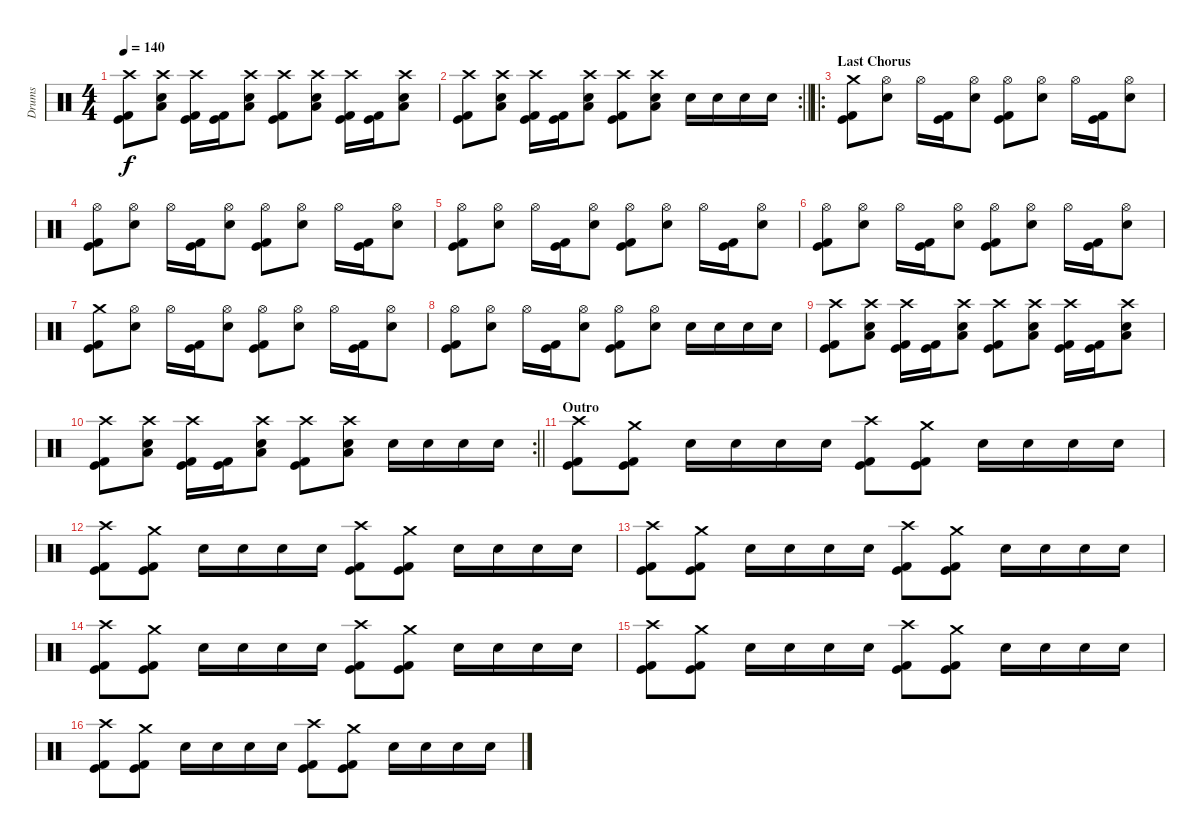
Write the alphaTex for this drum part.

\track ("Drums" "Drums") {instrument percussion}
\staff {score}
\articulation defaults
\ts (4 4)
\tempo 140
\clef neutral
\ks c
("Crash high (hit)" "Kick (hit)" "Kick (hit) 2").8{dy f} ("Crash high (hit)" "Electric Snare (hit)" "Low Floor Tom (hit)").8 ("Crash high (hit)" "Kick (hit)" "Kick (hit) 2").16 ("Kick (hit)" "Kick (hit) 2").16 ("Crash high (hit)" "Electric Snare (hit)" "Low Floor Tom (hit)").8 ("Crash high (hit)" "Kick (hit)" "Kick (hit) 2").8 ("Crash high (hit)" "Electric Snare (hit)" "Low Floor Tom (hit)").8 ("Crash high (hit)" "Kick (hit)" "Kick (hit) 2").16 ("Kick (hit)" "Kick (hit) 2").16 ("Crash high (hit)" "Electric Snare (hit)" "Low Floor Tom (hit)").8 |
\rc 2
\barLineRight lightlight
("Crash high (hit)" "Kick (hit)" "Kick (hit) 2").8 ("Crash high (hit)" "Electric Snare (hit)" "Low Floor Tom (hit)").8 ("Crash high (hit)" "Kick (hit)" "Kick (hit) 2").16 ("Kick (hit)" "Kick (hit) 2").16 ("Crash high (hit)" "Electric Snare (hit)" "Low Floor Tom (hit)").8 ("Crash high (hit)" "Kick (hit)" "Kick (hit) 2").8 ("Crash high (hit)" "Electric Snare (hit)" "Low Floor Tom (hit)").8 "Electric Snare (hit)".16 "Electric Snare (hit)".16 "Electric Snare (hit)".16 "Electric Snare (hit)".16 |
\ro
\section ("" "Last Chorus")
("Crash medium (hit)" "Kick (hit)" "Kick (hit) 2").8 ("Hi-Hat (open)" "Electric Snare (hit)").8 "Hi-Hat (open)".16 ("Kick (hit)" "Kick (hit) 2").16 ("Hi-Hat (open)" "Electric Snare (hit)").8 ("Hi-Hat (open)" "Kick (hit)" "Kick (hit) 2").8 ("Hi-Hat (open)" "Electric Snare (hit)").8 "Hi-Hat (open)".16 ("Kick (hit)" "Kick (hit) 2").16 ("Hi-Hat (open)" "Electric Snare (hit)").8 |
("Hi-Hat (open)" "Kick (hit)" "Kick (hit) 2").8 ("Hi-Hat (open)" "Electric Snare (hit)").8 "Hi-Hat (open)".16 ("Kick (hit)" "Kick (hit) 2").16 ("Hi-Hat (open)" "Electric Snare (hit)").8 ("Hi-Hat (open)" "Kick (hit)" "Kick (hit) 2").8 ("Hi-Hat (open)" "Electric Snare (hit)").8 "Hi-Hat (open)".16 ("Kick (hit)" "Kick (hit) 2").16 ("Hi-Hat (open)" "Electric Snare (hit)").8 |
("Hi-Hat (open)" "Kick (hit)" "Kick (hit) 2").8 ("Hi-Hat (open)" "Electric Snare (hit)").8 "Hi-Hat (open)".16 ("Kick (hit)" "Kick (hit) 2").16 ("Hi-Hat (open)" "Electric Snare (hit)").8 ("Hi-Hat (open)" "Kick (hit)" "Kick (hit) 2").8 ("Hi-Hat (open)" "Electric Snare (hit)").8 "Hi-Hat (open)".16 ("Kick (hit)" "Kick (hit) 2").16 ("Hi-Hat (open)" "Electric Snare (hit)").8 |
("Hi-Hat (open)" "Kick (hit)" "Kick (hit) 2").8 ("Hi-Hat (open)" "Electric Snare (hit)").8 "Hi-Hat (open)".16 ("Kick (hit)" "Kick (hit) 2").16 ("Hi-Hat (open)" "Electric Snare (hit)").8 ("Hi-Hat (open)" "Kick (hit)" "Kick (hit) 2").8 ("Hi-Hat (open)" "Electric Snare (hit)").8 "Hi-Hat (open)".16 ("Kick (hit)" "Kick (hit) 2").16 ("Hi-Hat (open)" "Electric Snare (hit)").8 |
("Crash medium (hit)" "Kick (hit)" "Kick (hit) 2").8 ("Hi-Hat (open)" "Electric Snare (hit)").8 "Hi-Hat (open)".16 ("Kick (hit)" "Kick (hit) 2").16 ("Hi-Hat (open)" "Electric Snare (hit)").8 ("Hi-Hat (open)" "Kick (hit)" "Kick (hit) 2").8 ("Hi-Hat (open)" "Electric Snare (hit)").8 "Hi-Hat (open)".16 ("Kick (hit)" "Kick (hit) 2").16 ("Hi-Hat (open)" "Electric Snare (hit)").8 |
("Hi-Hat (open)" "Kick (hit)" "Kick (hit) 2").8 ("Hi-Hat (open)" "Electric Snare (hit)").8 "Hi-Hat (open)".16 ("Kick (hit)" "Kick (hit) 2").16 ("Hi-Hat (open)" "Electric Snare (hit)").8 ("Hi-Hat (open)" "Kick (hit)" "Kick (hit) 2").8 ("Hi-Hat (open)" "Electric Snare (hit)").8 "Electric Snare (hit)".16 "Electric Snare (hit)".16 "Electric Snare (hit)".16 "Electric Snare (hit)".16 |
("Crash high (hit)" "Kick (hit)" "Kick (hit) 2").8 ("Crash high (hit)" "Electric Snare (hit)" "Low Floor Tom (hit)").8 ("Crash high (hit)" "Kick (hit)" "Kick (hit) 2").16 ("Kick (hit)" "Kick (hit) 2").16 ("Crash high (hit)" "Electric Snare (hit)" "Low Floor Tom (hit)").8 ("Crash high (hit)" "Kick (hit)" "Kick (hit) 2").8 ("Crash high (hit)" "Electric Snare (hit)" "Low Floor Tom (hit)").8 ("Crash high (hit)" "Kick (hit)" "Kick (hit) 2").16 ("Kick (hit)" "Kick (hit) 2").16 ("Crash high (hit)" "Electric Snare (hit)" "Low Floor Tom (hit)").8 |
\rc 2
\barLineRight lightlight
("Crash high (hit)" "Kick (hit)" "Kick (hit) 2").8 ("Crash high (hit)" "Electric Snare (hit)" "Low Floor Tom (hit)").8 ("Crash high (hit)" "Kick (hit)" "Kick (hit) 2").16 ("Kick (hit)" "Kick (hit) 2").16 ("Crash high (hit)" "Electric Snare (hit)" "Low Floor Tom (hit)").8 ("Crash high (hit)" "Kick (hit)" "Kick (hit) 2").8 ("Crash high (hit)" "Electric Snare (hit)" "Low Floor Tom (hit)").8 "Electric Snare (hit)".16 "Electric Snare (hit)".16 "Electric Snare (hit)".16 "Electric Snare (hit)".16 |
\section ("" "Outro")
("Crash high (hit)" "Kick (hit)" "Kick (hit) 2").8 ("Crash medium (hit)" "Kick (hit)" "Kick (hit) 2").8 "Electric Snare (hit)".16 "Electric Snare (hit)".16 "Electric Snare (hit)".16 "Electric Snare (hit)".16 ("Crash high (hit)" "Kick (hit)" "Kick (hit) 2").8 ("Crash medium (hit)" "Kick (hit)" "Kick (hit) 2").8 "Electric Snare (hit)".16 "Electric Snare (hit)".16 "Electric Snare (hit)".16 "Electric Snare (hit)".16 |
("Crash high (hit)" "Kick (hit)" "Kick (hit) 2").8 ("Crash medium (hit)" "Kick (hit)" "Kick (hit) 2").8 "Electric Snare (hit)".16 "Electric Snare (hit)".16 "Electric Snare (hit)".16 "Electric Snare (hit)".16 ("Crash high (hit)" "Kick (hit)" "Kick (hit) 2").8 ("Crash medium (hit)" "Kick (hit)" "Kick (hit) 2").8 "Electric Snare (hit)".16 "Electric Snare (hit)".16 "Electric Snare (hit)".16 "Electric Snare (hit)".16 |
("Crash high (hit)" "Kick (hit)" "Kick (hit) 2").8 ("Crash medium (hit)" "Kick (hit)" "Kick (hit) 2").8 "Electric Snare (hit)".16 "Electric Snare (hit)".16 "Electric Snare (hit)".16 "Electric Snare (hit)".16 ("Crash high (hit)" "Kick (hit)" "Kick (hit) 2").8 ("Crash medium (hit)" "Kick (hit)" "Kick (hit) 2").8 "Electric Snare (hit)".16 "Electric Snare (hit)".16 "Electric Snare (hit)".16 "Electric Snare (hit)".16 |
("Crash high (hit)" "Kick (hit)" "Kick (hit) 2").8 ("Crash medium (hit)" "Kick (hit)" "Kick (hit) 2").8 "Electric Snare (hit)".16 "Electric Snare (hit)".16 "Electric Snare (hit)".16 "Electric Snare (hit)".16 ("Crash high (hit)" "Kick (hit)" "Kick (hit) 2").8 ("Crash medium (hit)" "Kick (hit)" "Kick (hit) 2").8 "Electric Snare (hit)".16 "Electric Snare (hit)".16 "Electric Snare (hit)".16 "Electric Snare (hit)".16 |
("Crash high (hit)" "Kick (hit)" "Kick (hit) 2").8 ("Crash medium (hit)" "Kick (hit)" "Kick (hit) 2").8 "Electric Snare (hit)".16 "Electric Snare (hit)".16 "Electric Snare (hit)".16 "Electric Snare (hit)".16 ("Crash high (hit)" "Kick (hit)" "Kick (hit) 2").8 ("Crash medium (hit)" "Kick (hit)" "Kick (hit) 2").8 "Electric Snare (hit)".16 "Electric Snare (hit)".16 "Electric Snare (hit)".16 "Electric Snare (hit)".16 |
("Crash high (hit)" "Kick (hit)" "Kick (hit) 2").8 ("Crash medium (hit)" "Kick (hit)" "Kick (hit) 2").8 "Electric Snare (hit)".16 "Electric Snare (hit)".16 "Electric Snare (hit)".16 "Electric Snare (hit)".16 ("Crash high (hit)" "Kick (hit)" "Kick (hit) 2").8 ("Crash medium (hit)" "Kick (hit)" "Kick (hit) 2").8 "Electric Snare (hit)".16 "Electric Snare (hit)".16 "Electric Snare (hit)".16 "Electric Snare (hit)".16
